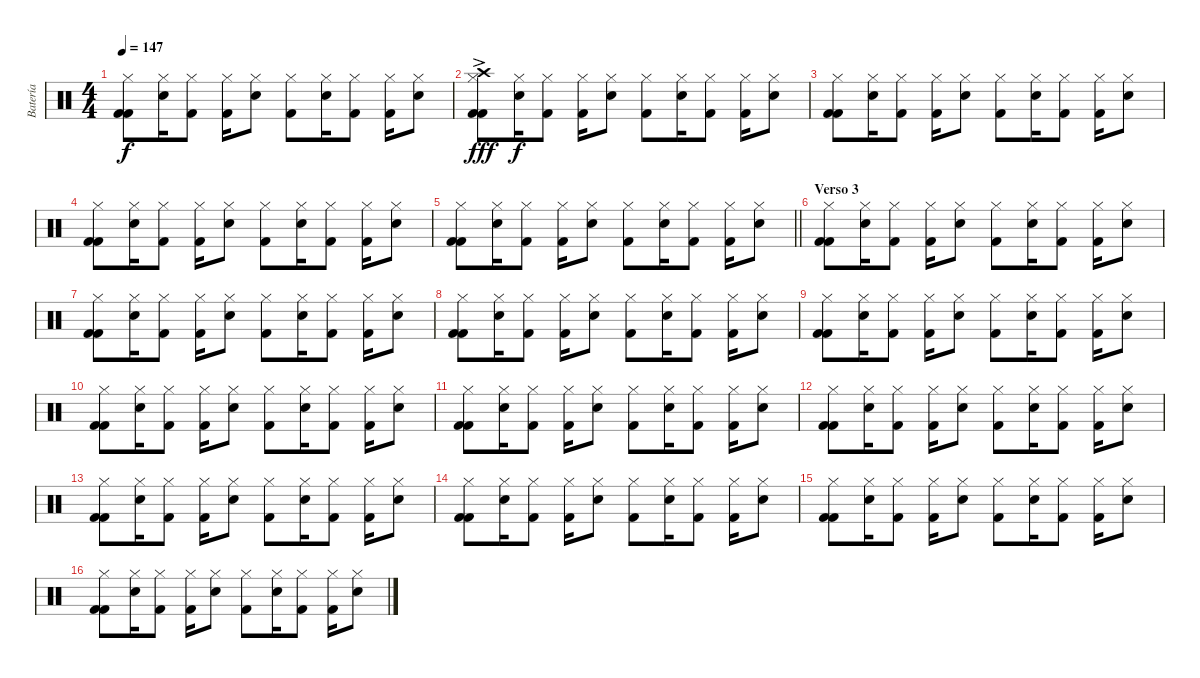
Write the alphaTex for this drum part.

\track ("Batería" "Batería") {instrument percussion}
\staff {score}
\articulation defaults
\ts (4 4)
\tempo 147
\clef neutral
\ks c
("Hi-Hat (closed)" "Kick (hit) 2" "Kick (hit) 2").8{dy f} ("Hi-Hat (closed)" "Electric Snare (hit)").16 ("Hi-Hat (closed)" "Kick (hit) 2").8 ("Hi-Hat (closed)" "Kick (hit) 2").16 ("Hi-Hat (closed)" "Electric Snare (hit)").8 ("Hi-Hat (closed)" "Kick (hit) 2").8 ("Hi-Hat (closed)" "Electric Snare (hit)").16 ("Hi-Hat (closed)" "Kick (hit) 2").8 ("Hi-Hat (closed)" "Kick (hit) 2").16 ("Hi-Hat (closed)" "Electric Snare (hit)").8 |
("Crash high (hit)"{ac} "Hi-Hat (closed)" "Kick (hit) 2" "Kick (hit) 2").8{dy fff} ("Hi-Hat (closed)" "Electric Snare (hit)").16{dy f} ("Hi-Hat (closed)" "Kick (hit) 2").8 ("Hi-Hat (closed)" "Kick (hit) 2").16 ("Hi-Hat (closed)" "Electric Snare (hit)").8 ("Hi-Hat (closed)" "Kick (hit) 2").8 ("Hi-Hat (closed)" "Electric Snare (hit)").16 ("Hi-Hat (closed)" "Kick (hit) 2").8 ("Hi-Hat (closed)" "Kick (hit) 2").16 ("Hi-Hat (closed)" "Electric Snare (hit)").8 |
("Hi-Hat (closed)" "Kick (hit) 2" "Kick (hit) 2").8 ("Hi-Hat (closed)" "Electric Snare (hit)").16 ("Hi-Hat (closed)" "Kick (hit) 2").8 ("Hi-Hat (closed)" "Kick (hit) 2").16 ("Hi-Hat (closed)" "Electric Snare (hit)").8 ("Hi-Hat (closed)" "Kick (hit) 2").8 ("Hi-Hat (closed)" "Electric Snare (hit)").16 ("Hi-Hat (closed)" "Kick (hit) 2").8 ("Hi-Hat (closed)" "Kick (hit) 2").16 ("Hi-Hat (closed)" "Electric Snare (hit)").8 |
("Hi-Hat (closed)" "Kick (hit) 2" "Kick (hit) 2").8 ("Hi-Hat (closed)" "Electric Snare (hit)").16 ("Hi-Hat (closed)" "Kick (hit) 2").8 ("Hi-Hat (closed)" "Kick (hit) 2").16 ("Hi-Hat (closed)" "Electric Snare (hit)").8 ("Hi-Hat (closed)" "Kick (hit) 2").8 ("Hi-Hat (closed)" "Electric Snare (hit)").16 ("Hi-Hat (closed)" "Kick (hit) 2").8 ("Hi-Hat (closed)" "Kick (hit) 2").16 ("Hi-Hat (closed)" "Electric Snare (hit)").8 |
\barLineRight lightlight
("Hi-Hat (closed)" "Kick (hit) 2" "Kick (hit) 2").8 ("Hi-Hat (closed)" "Electric Snare (hit)").16 ("Hi-Hat (closed)" "Kick (hit) 2").8 ("Hi-Hat (closed)" "Kick (hit) 2").16 ("Hi-Hat (closed)" "Electric Snare (hit)").8 ("Hi-Hat (closed)" "Kick (hit) 2").8 ("Hi-Hat (closed)" "Electric Snare (hit)").16 ("Hi-Hat (closed)" "Kick (hit) 2").8 ("Hi-Hat (closed)" "Kick (hit) 2").16 ("Hi-Hat (closed)" "Electric Snare (hit)").8 |
\section ("" "Verso 3")
("Hi-Hat (closed)" "Kick (hit) 2" "Kick (hit) 2").8 ("Hi-Hat (closed)" "Electric Snare (hit)").16 ("Hi-Hat (closed)" "Kick (hit) 2").8 ("Hi-Hat (closed)" "Kick (hit) 2").16 ("Hi-Hat (closed)" "Electric Snare (hit)").8 ("Hi-Hat (closed)" "Kick (hit) 2").8 ("Hi-Hat (closed)" "Electric Snare (hit)").16 ("Hi-Hat (closed)" "Kick (hit) 2").8 ("Hi-Hat (closed)" "Kick (hit) 2").16 ("Hi-Hat (closed)" "Electric Snare (hit)").8 |
("Hi-Hat (closed)" "Kick (hit) 2" "Kick (hit) 2").8 ("Hi-Hat (closed)" "Electric Snare (hit)").16 ("Hi-Hat (closed)" "Kick (hit) 2").8 ("Hi-Hat (closed)" "Kick (hit) 2").16 ("Hi-Hat (closed)" "Electric Snare (hit)").8 ("Hi-Hat (closed)" "Kick (hit) 2").8 ("Hi-Hat (closed)" "Electric Snare (hit)").16 ("Hi-Hat (closed)" "Kick (hit) 2").8 ("Hi-Hat (closed)" "Kick (hit) 2").16 ("Hi-Hat (closed)" "Electric Snare (hit)").8 |
("Hi-Hat (closed)" "Kick (hit) 2" "Kick (hit) 2").8 ("Hi-Hat (closed)" "Electric Snare (hit)").16 ("Hi-Hat (closed)" "Kick (hit) 2").8 ("Hi-Hat (closed)" "Kick (hit) 2").16 ("Hi-Hat (closed)" "Electric Snare (hit)").8 ("Hi-Hat (closed)" "Kick (hit) 2").8 ("Hi-Hat (closed)" "Electric Snare (hit)").16 ("Hi-Hat (closed)" "Kick (hit) 2").8 ("Hi-Hat (closed)" "Kick (hit) 2").16 ("Hi-Hat (closed)" "Electric Snare (hit)").8 |
("Hi-Hat (closed)" "Kick (hit) 2" "Kick (hit) 2").8 ("Hi-Hat (closed)" "Electric Snare (hit)").16 ("Hi-Hat (closed)" "Kick (hit) 2").8 ("Hi-Hat (closed)" "Kick (hit) 2").16 ("Hi-Hat (closed)" "Electric Snare (hit)").8 ("Hi-Hat (closed)" "Kick (hit) 2").8 ("Hi-Hat (closed)" "Electric Snare (hit)").16 ("Hi-Hat (closed)" "Kick (hit) 2").8 ("Hi-Hat (closed)" "Kick (hit) 2").16 ("Hi-Hat (closed)" "Electric Snare (hit)").8 |
("Hi-Hat (closed)" "Kick (hit) 2" "Kick (hit) 2").8 ("Hi-Hat (closed)" "Electric Snare (hit)").16 ("Hi-Hat (closed)" "Kick (hit) 2").8 ("Hi-Hat (closed)" "Kick (hit) 2").16 ("Hi-Hat (closed)" "Electric Snare (hit)").8 ("Hi-Hat (closed)" "Kick (hit) 2").8 ("Hi-Hat (closed)" "Electric Snare (hit)").16 ("Hi-Hat (closed)" "Kick (hit) 2").8 ("Hi-Hat (closed)" "Kick (hit) 2").16 ("Hi-Hat (closed)" "Electric Snare (hit)").8 |
("Hi-Hat (closed)" "Kick (hit) 2" "Kick (hit) 2").8 ("Hi-Hat (closed)" "Electric Snare (hit)").16 ("Hi-Hat (closed)" "Kick (hit) 2").8 ("Hi-Hat (closed)" "Kick (hit) 2").16 ("Hi-Hat (closed)" "Electric Snare (hit)").8 ("Hi-Hat (closed)" "Kick (hit) 2").8 ("Hi-Hat (closed)" "Electric Snare (hit)").16 ("Hi-Hat (closed)" "Kick (hit) 2").8 ("Hi-Hat (closed)" "Kick (hit) 2").16 ("Hi-Hat (closed)" "Electric Snare (hit)").8 |
("Hi-Hat (closed)" "Kick (hit) 2" "Kick (hit) 2").8 ("Hi-Hat (closed)" "Electric Snare (hit)").16 ("Hi-Hat (closed)" "Kick (hit) 2").8 ("Hi-Hat (closed)" "Kick (hit) 2").16 ("Hi-Hat (closed)" "Electric Snare (hit)").8 ("Hi-Hat (closed)" "Kick (hit) 2").8 ("Hi-Hat (closed)" "Electric Snare (hit)").16 ("Hi-Hat (closed)" "Kick (hit) 2").8 ("Hi-Hat (closed)" "Kick (hit) 2").16 ("Hi-Hat (closed)" "Electric Snare (hit)").8 |
("Hi-Hat (closed)" "Kick (hit) 2" "Kick (hit) 2").8 ("Hi-Hat (closed)" "Electric Snare (hit)").16 ("Hi-Hat (closed)" "Kick (hit) 2").8 ("Hi-Hat (closed)" "Kick (hit) 2").16 ("Hi-Hat (closed)" "Electric Snare (hit)").8 ("Hi-Hat (closed)" "Kick (hit) 2").8 ("Hi-Hat (closed)" "Electric Snare (hit)").16 ("Hi-Hat (closed)" "Kick (hit) 2").8 ("Hi-Hat (closed)" "Kick (hit) 2").16 ("Hi-Hat (closed)" "Electric Snare (hit)").8 |
("Hi-Hat (closed)" "Kick (hit) 2" "Kick (hit) 2").8 ("Hi-Hat (closed)" "Electric Snare (hit)").16 ("Hi-Hat (closed)" "Kick (hit) 2").8 ("Hi-Hat (closed)" "Kick (hit) 2").16 ("Hi-Hat (closed)" "Electric Snare (hit)").8 ("Hi-Hat (closed)" "Kick (hit) 2").8 ("Hi-Hat (closed)" "Electric Snare (hit)").16 ("Hi-Hat (closed)" "Kick (hit) 2").8 ("Hi-Hat (closed)" "Kick (hit) 2").16 ("Hi-Hat (closed)" "Electric Snare (hit)").8 |
("Hi-Hat (closed)" "Kick (hit) 2" "Kick (hit) 2").8 ("Hi-Hat (closed)" "Electric Snare (hit)").16 ("Hi-Hat (closed)" "Kick (hit) 2").8 ("Hi-Hat (closed)" "Kick (hit) 2").16 ("Hi-Hat (closed)" "Electric Snare (hit)").8 ("Hi-Hat (closed)" "Kick (hit) 2").8 ("Hi-Hat (closed)" "Electric Snare (hit)").16 ("Hi-Hat (closed)" "Kick (hit) 2").8 ("Hi-Hat (closed)" "Kick (hit) 2").16 ("Hi-Hat (closed)" "Electric Snare (hit)").8 |
("Hi-Hat (closed)" "Kick (hit) 2" "Kick (hit) 2").8 ("Hi-Hat (closed)" "Electric Snare (hit)").16 ("Hi-Hat (closed)" "Kick (hit) 2").8 ("Hi-Hat (closed)" "Kick (hit) 2").16 ("Hi-Hat (closed)" "Electric Snare (hit)").8 ("Hi-Hat (closed)" "Kick (hit) 2").8 ("Hi-Hat (closed)" "Electric Snare (hit)").16 ("Hi-Hat (closed)" "Kick (hit) 2").8 ("Hi-Hat (closed)" "Kick (hit) 2").16 ("Hi-Hat (closed)" "Electric Snare (hit)").8
